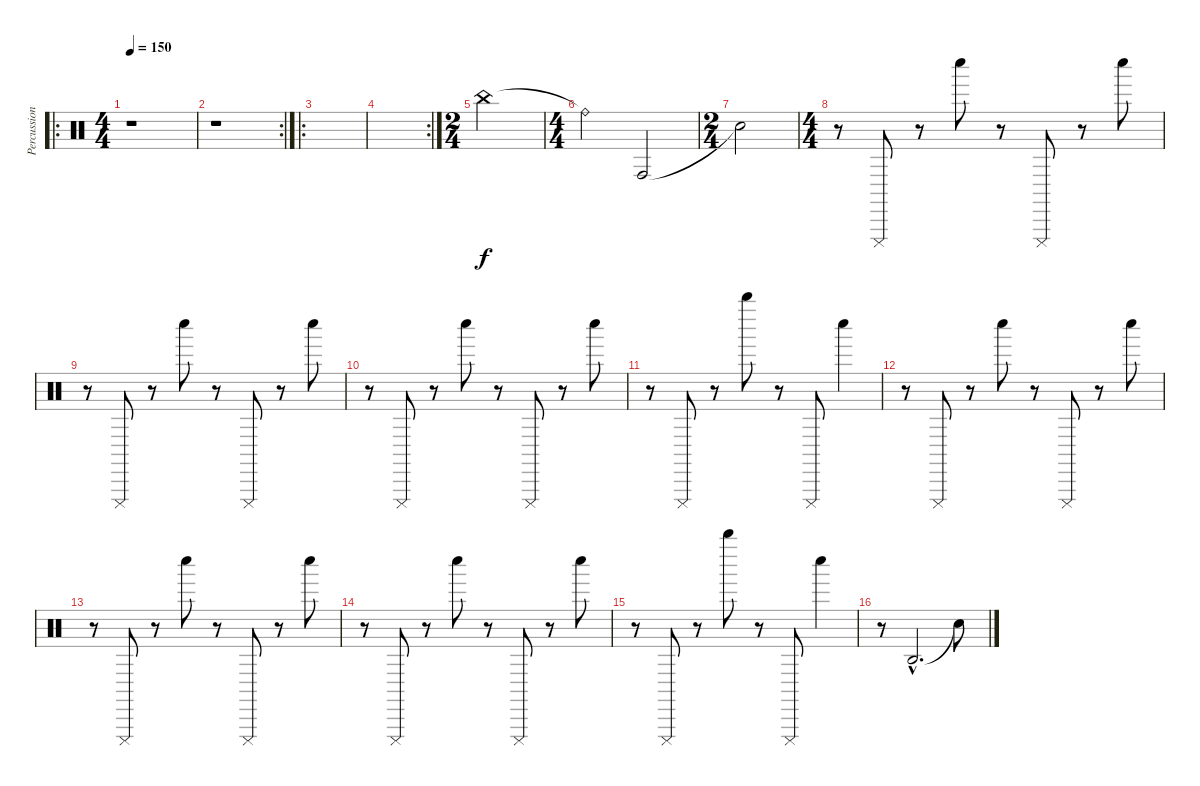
\track ("Percussion" "Percussion") {instrument percussion}
\staff {score}
\articulation defaults
\ro
\ts (4 4)
\tempo 150
\clef neutral
\ks c
r.1{dy f} |
\rc 2
r.1 |
\ro
|
\rc 2
|
\ts (2 4)
"China (hit)".2 |
\ts (4 4)
"Ride (bell)"{t}.2 "Conga high (hit)".2 |
\ts (2 4)
"Snare (hit)"{t}.2 |
\ts (4 4)
r.8 "Cuica (mute)".8 r.8 "Whistle low (hit)".8 r.8 "Cuica (mute)".8 r.8 "Whistle low (hit)".8 |
r.8 "Cuica (mute)".8 r.8 "Whistle low (hit)".8 r.8 "Cuica (mute)".8 r.8 "Whistle low (hit)".8 |
r.8 "Cuica (mute)".8 r.8 "Whistle low (hit)".8 r.8 "Cuica (mute)".8 r.8 "Whistle low (hit)".8 |
r.8 "Cuica (mute)".8 r.8 "Whistle high (hit)".8 r.8 "Cuica (mute)".8 "Whistle low (hit)".4 |
r.8 "Cuica (mute)".8 r.8 "Whistle low (hit)".8 r.8 "Cuica (mute)".8 r.8 "Whistle low (hit)".8 |
r.8 "Cuica (mute)".8 r.8 "Whistle low (hit)".8 r.8 "Cuica (mute)".8 r.8 "Whistle low (hit)".8 |
r.8 "Cuica (mute)".8 r.8 "Whistle low (hit)".8 r.8 "Cuica (mute)".8 r.8 "Whistle low (hit)".8 |
r.8 "Cuica (mute)".8 r.8 "Whistle high (hit)".8 r.8 "Cuica (mute)".8 "Whistle low (hit)".4 |
r.8 "Agogo high (hit)"{hac}.2{d} "Snare (hit)"{t}.8
